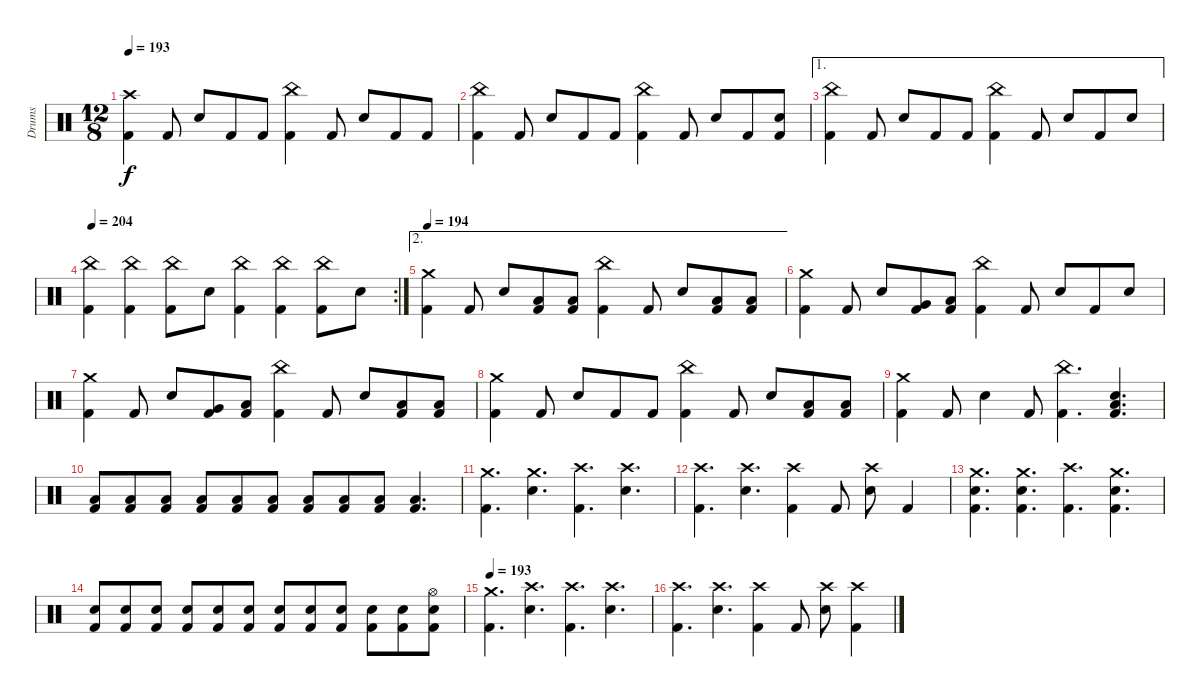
\track ("Drums" "Drums") {instrument percussion}
\staff {score}
\articulation defaults
\ts (12 8)
\tempo 193
\clef neutral
\ks c
("Crash high (hit)" "Kick (hit) 2").4{dy f} "Kick (hit) 2".8 "Electric Snare (hit)".8 "Kick (hit) 2".8 "Kick (hit) 2".8 ("China (hit)" "Kick (hit) 2").4 "Kick (hit) 2".8 "Electric Snare (hit)".8 "Kick (hit) 2".8 "Kick (hit) 2".8 |
("China (hit)" "Kick (hit) 2").4 "Kick (hit) 2".8 "Electric Snare (hit)".8 "Kick (hit) 2".8 "Kick (hit) 2".8 ("China (hit)" "Kick (hit) 2").4 "Kick (hit) 2".8 "Electric Snare (hit)".8 "Kick (hit) 2".8 ("Electric Snare (hit)" "Kick (hit) 2").8 |
\ae 1
("China (hit)" "Kick (hit) 2").4 "Kick (hit) 2".8 "Electric Snare (hit)".8 "Kick (hit) 2".8 "Kick (hit) 2".8 ("China (hit)" "Kick (hit) 2").4 "Kick (hit) 2".8 "Electric Snare (hit)".8 "Kick (hit) 2".8 "Electric Snare (hit)".8 |
\rc 2
\tempo 204
("China (hit)" "Kick (hit) 2").4 ("China (hit)" "Kick (hit) 2").4 ("China (hit)" "Kick (hit) 2").8 "Electric Snare (hit)".8 ("China (hit)" "Kick (hit) 2").4 ("China (hit)" "Kick (hit) 2").4 ("China (hit)" "Kick (hit) 2").8 "Electric Snare (hit)".8 |
\ae 2
\tempo 194
("Crash medium (hit)" "Kick (hit) 2").4 "Kick (hit) 2".8 "Electric Snare (hit)".8 ("Low Tom (hit)" "Kick (hit) 2").8 ("Low Floor Tom (hit)" "Kick (hit) 2").8 ("China (hit)" "Kick (hit) 2").4 "Kick (hit) 2".8 "Electric Snare (hit)".8 ("Low Tom (hit)" "Kick (hit) 2").8 ("Low Floor Tom (hit)" "Kick (hit) 2").8 |
("Crash medium (hit)" "Kick (hit) 2").4 "Kick (hit) 2".8 "Electric Snare (hit)".8 ("Very Low Tom (hit)" "Kick (hit) 2").8 ("Low Floor Tom (hit)" "Kick (hit) 2").8 ("China (hit)" "Kick (hit) 2").4 "Kick (hit) 2".8 "Electric Snare (hit)".8 "Kick (hit) 2".8 "Electric Snare (hit)".8 |
("Crash medium (hit)" "Kick (hit) 2").4 "Kick (hit) 2".8 "Electric Snare (hit)".8 ("Very Low Tom (hit)" "Kick (hit) 2").8 ("Low Floor Tom (hit)" "Kick (hit) 2").8 ("China (hit)" "Kick (hit) 2").4 "Kick (hit) 2".8 "Electric Snare (hit)".8 ("Low Tom (hit)" "Kick (hit) 2").8 ("Low Floor Tom (hit)" "Kick (hit) 2").8 |
("Crash medium (hit)" "Kick (hit) 2").4 "Kick (hit) 2".8 "Electric Snare (hit)".8 "Kick (hit) 2".8 "Kick (hit) 2".8 ("China (hit)" "Kick (hit) 2").4 "Kick (hit) 2".8 "Electric Snare (hit)".8 ("Low Tom (hit)" "Kick (hit) 2").8 ("Low Floor Tom (hit)" "Kick (hit) 2").8 |
("Crash medium (hit)" "Kick (hit) 2").4 "Kick (hit) 2".8 "Electric Snare (hit)".4 "Kick (hit) 2".8 ("China (hit)" "Kick (hit) 2").4{d} ("Electric Snare (hit)" "Low Floor Tom (hit)" "Kick (hit) 2").4{d} |
("Low Tom (hit)" "Kick (hit) 2").8 ("Low Floor Tom (hit)" "Kick (hit) 2").8 ("Low Floor Tom (hit)" "Kick (hit) 2").8 ("Low Tom (hit)" "Kick (hit) 2").8 ("Low Floor Tom (hit)" "Kick (hit) 2").8 ("Low Floor Tom (hit)" "Kick (hit) 2").8 ("Low Tom (hit)" "Kick (hit) 2").8 ("Low Floor Tom (hit)" "Kick (hit) 2").8 ("Low Floor Tom (hit)" "Kick (hit) 2").8 ("Low Tom (hit)" "Kick (hit) 2").4{d} |
("Crash medium (hit)" "Kick (hit) 2").4{d} ("Crash medium (hit)" "Electric Snare (hit)").4{d} ("Crash high (hit)" "Kick (hit) 2").4{d} ("Crash high (hit)" "Electric Snare (hit)").4{d} |
("Crash high (hit)" "Kick (hit) 2").4{d} ("Crash high (hit)" "Electric Snare (hit)").4{d} ("Crash high (hit)" "Kick (hit) 2").4 "Kick (hit) 2".8 ("Crash high (hit)" "Electric Snare (hit)").8 "Kick (hit) 2".4 |
("Crash medium (hit)" "Electric Snare (hit)" "Kick (hit) 2").4{d} ("Crash medium (hit)" "Electric Snare (hit)" "Kick (hit) 2").4{d} ("Crash high (hit)" "Kick (hit) 2").4{d} ("Crash medium (hit)" "Electric Snare (hit)" "Kick (hit) 2").4{d} |
("Electric Snare (hit)" "Kick (hit) 2").8 ("Electric Snare (hit)" "Kick (hit) 2").8 ("Electric Snare (hit)" "Kick (hit) 2").8 ("Electric Snare (hit)" "Kick (hit) 2").8 ("Electric Snare (hit)" "Kick (hit) 2").8 ("Electric Snare (hit)" "Kick (hit) 2").8 ("Electric Snare (hit)" "Kick (hit) 2").8 ("Electric Snare (hit)" "Kick (hit) 2").8 ("Electric Snare (hit)" "Kick (hit) 2").8 ("Electric Snare (hit)" "Kick (hit) 2").8 ("Electric Snare (hit)" "Kick (hit) 2").8 ("Hi-Hat (open)" "Electric Snare (hit)" "Kick (hit) 2").8 |
\tempo 193
("Crash medium (hit)" "Kick (hit) 2").4{d} ("Crash high (hit)" "Electric Snare (hit)").4{d} ("Crash high (hit)" "Kick (hit) 2").4{d} ("Crash high (hit)" "Electric Snare (hit)").4{d} |
("Crash high (hit)" "Kick (hit) 2").4{d} ("Crash high (hit)" "Electric Snare (hit)").4{d} ("Crash high (hit)" "Kick (hit) 2").4 "Kick (hit) 2".8 ("Crash high (hit)" "Electric Snare (hit)").8 ("Crash high (hit)" "Kick (hit) 2").4
